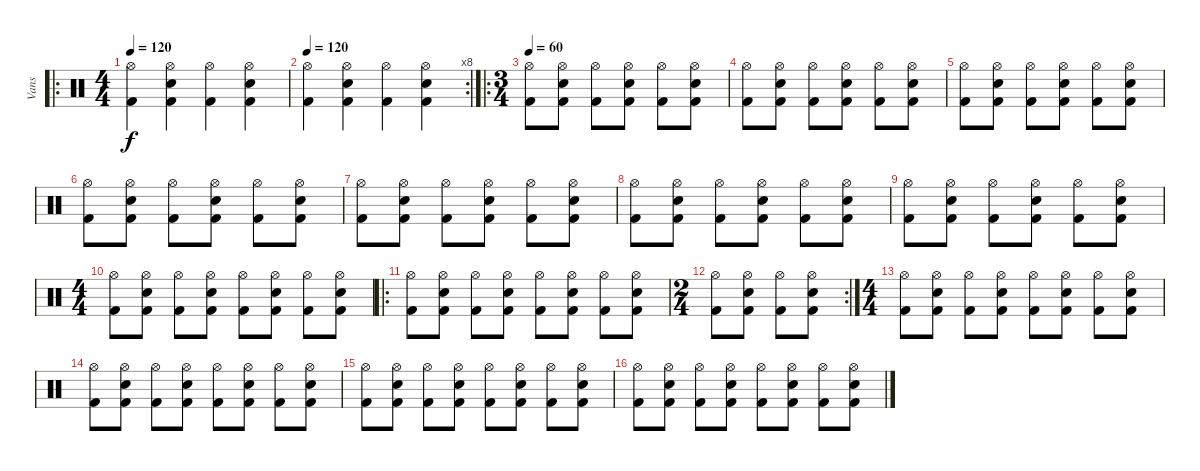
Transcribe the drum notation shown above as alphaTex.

\track ("Vans" "Vans") {instrument percussion}
\staff {score}
\articulation defaults
\ro
\ts (4 4)
\tempo 120
\clef neutral
\ks c
("Hi-Hat (open)" "Kick (hit) 2").4{dy f} ("Hi-Hat (open)" "Snare (hit) 2" "Kick (hit) 2").4 ("Hi-Hat (open)" "Kick (hit) 2").4 ("Hi-Hat (open)" "Snare (hit) 2" "Kick (hit) 2").4 |
\rc 8
\tempo 120
("Hi-Hat (open)" "Kick (hit) 2").4 ("Hi-Hat (open)" "Snare (hit) 2" "Kick (hit) 2").4 ("Hi-Hat (open)" "Kick (hit) 2").4 ("Hi-Hat (open)" "Snare (hit) 2" "Kick (hit) 2").4 |
\ro
\ts (3 4)
\tempo 60
("Hi-Hat (open)" "Kick (hit) 2").8 ("Hi-Hat (open)" "Snare (hit) 2" "Kick (hit) 2").8 ("Hi-Hat (open)" "Kick (hit) 2").8 ("Hi-Hat (open)" "Snare (hit) 2" "Kick (hit) 2").8 ("Hi-Hat (open)" "Kick (hit) 2").8 ("Hi-Hat (open)" "Snare (hit) 2" "Kick (hit) 2").8 |
("Hi-Hat (open)" "Kick (hit) 2").8 ("Hi-Hat (open)" "Snare (hit) 2" "Kick (hit) 2").8 ("Hi-Hat (open)" "Kick (hit) 2").8 ("Hi-Hat (open)" "Snare (hit) 2" "Kick (hit) 2").8 ("Hi-Hat (open)" "Kick (hit) 2").8 ("Hi-Hat (open)" "Snare (hit) 2" "Kick (hit) 2").8 |
("Hi-Hat (open)" "Kick (hit) 2").8 ("Hi-Hat (open)" "Snare (hit) 2" "Kick (hit) 2").8 ("Hi-Hat (open)" "Kick (hit) 2").8 ("Hi-Hat (open)" "Snare (hit) 2" "Kick (hit) 2").8 ("Hi-Hat (open)" "Kick (hit) 2").8 ("Hi-Hat (open)" "Snare (hit) 2" "Kick (hit) 2").8 |
("Hi-Hat (open)" "Kick (hit) 2").8 ("Hi-Hat (open)" "Snare (hit) 2" "Kick (hit) 2").8 ("Hi-Hat (open)" "Kick (hit) 2").8 ("Hi-Hat (open)" "Snare (hit) 2" "Kick (hit) 2").8 ("Hi-Hat (open)" "Kick (hit) 2").8 ("Hi-Hat (open)" "Snare (hit) 2" "Kick (hit) 2").8 |
("Hi-Hat (open)" "Kick (hit) 2").8 ("Hi-Hat (open)" "Snare (hit) 2" "Kick (hit) 2").8 ("Hi-Hat (open)" "Kick (hit) 2").8 ("Hi-Hat (open)" "Snare (hit) 2" "Kick (hit) 2").8 ("Hi-Hat (open)" "Kick (hit) 2").8 ("Hi-Hat (open)" "Snare (hit) 2" "Kick (hit) 2").8 |
("Hi-Hat (open)" "Kick (hit) 2").8 ("Hi-Hat (open)" "Snare (hit) 2" "Kick (hit) 2").8 ("Hi-Hat (open)" "Kick (hit) 2").8 ("Hi-Hat (open)" "Snare (hit) 2" "Kick (hit) 2").8 ("Hi-Hat (open)" "Kick (hit) 2").8 ("Hi-Hat (open)" "Snare (hit) 2" "Kick (hit) 2").8 |
("Hi-Hat (open)" "Kick (hit) 2").8 ("Hi-Hat (open)" "Snare (hit) 2" "Kick (hit) 2").8 ("Hi-Hat (open)" "Kick (hit) 2").8 ("Hi-Hat (open)" "Snare (hit) 2" "Kick (hit) 2").8 ("Hi-Hat (open)" "Kick (hit) 2").8 ("Hi-Hat (open)" "Snare (hit) 2" "Kick (hit) 2").8 |
\ts (4 4)
("Hi-Hat (open)" "Kick (hit) 2").8 ("Hi-Hat (open)" "Snare (hit) 2" "Kick (hit) 2").8 ("Hi-Hat (open)" "Kick (hit) 2").8 ("Hi-Hat (open)" "Snare (hit) 2" "Kick (hit) 2").8 ("Hi-Hat (open)" "Kick (hit) 2").8 ("Hi-Hat (open)" "Snare (hit) 2" "Kick (hit) 2").8 ("Hi-Hat (open)" "Kick (hit) 2").8 ("Hi-Hat (open)" "Snare (hit) 2" "Kick (hit) 2").8 |
\ro
("Hi-Hat (open)" "Kick (hit) 2").8 ("Hi-Hat (open)" "Snare (hit) 2" "Kick (hit) 2").8 ("Hi-Hat (open)" "Kick (hit) 2").8 ("Hi-Hat (open)" "Snare (hit) 2" "Kick (hit) 2").8 ("Hi-Hat (open)" "Kick (hit) 2").8 ("Hi-Hat (open)" "Snare (hit) 2" "Kick (hit) 2").8 ("Hi-Hat (open)" "Kick (hit) 2").8 ("Hi-Hat (open)" "Snare (hit) 2" "Kick (hit) 2").8 |
\rc 2
\ts (2 4)
("Hi-Hat (open)" "Kick (hit) 2").8 ("Hi-Hat (open)" "Snare (hit) 2" "Kick (hit) 2").8 ("Hi-Hat (open)" "Kick (hit) 2").8 ("Hi-Hat (open)" "Snare (hit) 2" "Kick (hit) 2").8 |
\ts (4 4)
("Hi-Hat (open)" "Kick (hit) 2").8 ("Hi-Hat (open)" "Snare (hit) 2" "Kick (hit) 2").8 ("Hi-Hat (open)" "Kick (hit) 2").8 ("Hi-Hat (open)" "Snare (hit) 2" "Kick (hit) 2").8 ("Hi-Hat (open)" "Kick (hit) 2").8 ("Hi-Hat (open)" "Snare (hit) 2" "Kick (hit) 2").8 ("Hi-Hat (open)" "Kick (hit) 2").8 ("Hi-Hat (open)" "Snare (hit) 2" "Kick (hit) 2").8 |
("Hi-Hat (open)" "Kick (hit) 2").8 ("Hi-Hat (open)" "Snare (hit) 2" "Kick (hit) 2").8 ("Hi-Hat (open)" "Kick (hit) 2").8 ("Hi-Hat (open)" "Snare (hit) 2" "Kick (hit) 2").8 ("Hi-Hat (open)" "Kick (hit) 2").8 ("Hi-Hat (open)" "Snare (hit) 2" "Kick (hit) 2").8 ("Hi-Hat (open)" "Kick (hit) 2").8 ("Hi-Hat (open)" "Snare (hit) 2" "Kick (hit) 2").8 |
("Hi-Hat (open)" "Kick (hit) 2").8 ("Hi-Hat (open)" "Snare (hit) 2" "Kick (hit) 2").8 ("Hi-Hat (open)" "Kick (hit) 2").8 ("Hi-Hat (open)" "Snare (hit) 2" "Kick (hit) 2").8 ("Hi-Hat (open)" "Kick (hit) 2").8 ("Hi-Hat (open)" "Snare (hit) 2" "Kick (hit) 2").8 ("Hi-Hat (open)" "Kick (hit) 2").8 ("Hi-Hat (open)" "Snare (hit) 2" "Kick (hit) 2").8 |
("Hi-Hat (open)" "Kick (hit) 2").8 ("Hi-Hat (open)" "Snare (hit) 2" "Kick (hit) 2").8 ("Hi-Hat (open)" "Kick (hit) 2").8 ("Hi-Hat (open)" "Snare (hit) 2" "Kick (hit) 2").8 ("Hi-Hat (open)" "Kick (hit) 2").8 ("Hi-Hat (open)" "Snare (hit) 2" "Kick (hit) 2").8 ("Hi-Hat (open)" "Kick (hit) 2").8 ("Hi-Hat (open)" "Snare (hit) 2" "Kick (hit) 2").8
